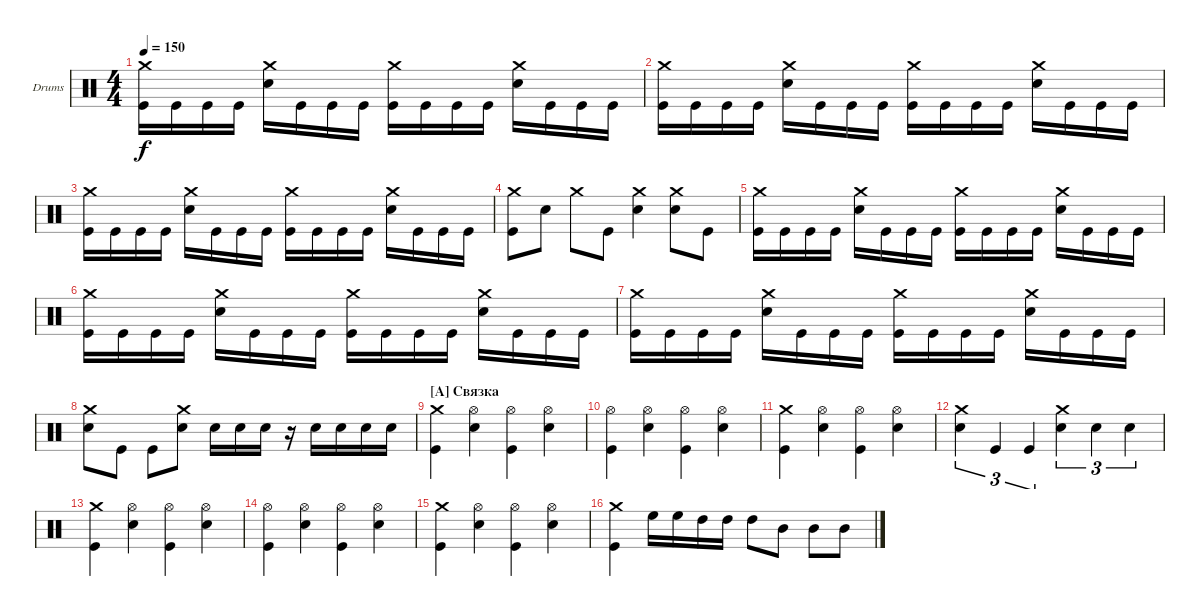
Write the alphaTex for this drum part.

\defaultSystemsLayout 4
\bracketExtendMode groupsimilarinstruments
\firstSystemTrackNameOrientation horizontal
\otherSystemsTrackNameOrientation horizontal
\track ("Drumkit" "Drums") {instrument percussion}
\staff {score}
\articulation defaults
\ts (4 4)
\tempo 150
\clef neutral
\ks c
("Kick (hit)" "Crash medium (hit)").16{dy f} "Kick (hit)".16 "Kick (hit)".16 "Kick (hit)".16 ("Snare (hit) 2" "Crash medium (hit)").16 "Kick (hit)".16 "Kick (hit)".16 "Kick (hit)".16 ("Kick (hit)" "Crash medium (hit)").16 "Kick (hit)".16 "Kick (hit)".16 "Kick (hit)".16 ("Snare (hit) 2" "Crash medium (hit)").16 "Kick (hit)".16 "Kick (hit)".16 "Kick (hit)".16 |
("Kick (hit)" "Crash medium (hit)").16 "Kick (hit)".16 "Kick (hit)".16 "Kick (hit)".16 ("Snare (hit) 2" "Crash medium (hit)").16 "Kick (hit)".16 "Kick (hit)".16 "Kick (hit)".16 ("Kick (hit)" "Crash medium (hit)").16 "Kick (hit)".16 "Kick (hit)".16 "Kick (hit)".16 ("Snare (hit) 2" "Crash medium (hit)").16 "Kick (hit)".16 "Kick (hit)".16 "Kick (hit)".16 |
("Kick (hit)" "Crash medium (hit)").16 "Kick (hit)".16 "Kick (hit)".16 "Kick (hit)".16 ("Snare (hit) 2" "Crash medium (hit)").16 "Kick (hit)".16 "Kick (hit)".16 "Kick (hit)".16 ("Kick (hit)" "Crash medium (hit)").16 "Kick (hit)".16 "Kick (hit)".16 "Kick (hit)".16 ("Snare (hit) 2" "Crash medium (hit)").16 "Kick (hit)".16 "Kick (hit)".16 "Kick (hit)".16 |
("Crash medium (hit)" "Kick (hit)").8 "Snare (hit) 2".8 "Crash medium (hit)".8 "Kick (hit)".8 ("Snare (hit) 2" "Crash medium (hit)").4 ("Snare (hit) 2" "Crash medium (hit)").8 "Kick (hit)".8 |
("Kick (hit)" "Crash medium (hit)").16 "Kick (hit)".16 "Kick (hit)".16 "Kick (hit)".16 ("Snare (hit) 2" "Crash medium (hit)").16 "Kick (hit)".16 "Kick (hit)".16 "Kick (hit)".16 ("Kick (hit)" "Crash medium (hit)").16 "Kick (hit)".16 "Kick (hit)".16 "Kick (hit)".16 ("Snare (hit) 2" "Crash medium (hit)").16 "Kick (hit)".16 "Kick (hit)".16 "Kick (hit)".16 |
("Kick (hit)" "Crash medium (hit)").16 "Kick (hit)".16 "Kick (hit)".16 "Kick (hit)".16 ("Snare (hit) 2" "Crash medium (hit)").16 "Kick (hit)".16 "Kick (hit)".16 "Kick (hit)".16 ("Kick (hit)" "Crash medium (hit)").16 "Kick (hit)".16 "Kick (hit)".16 "Kick (hit)".16 ("Snare (hit) 2" "Crash medium (hit)").16 "Kick (hit)".16 "Kick (hit)".16 "Kick (hit)".16 |
("Kick (hit)" "Crash medium (hit)").16 "Kick (hit)".16 "Kick (hit)".16 "Kick (hit)".16 ("Snare (hit) 2" "Crash medium (hit)").16 "Kick (hit)".16 "Kick (hit)".16 "Kick (hit)".16 ("Kick (hit)" "Crash medium (hit)").16 "Kick (hit)".16 "Kick (hit)".16 "Kick (hit)".16 ("Snare (hit) 2" "Crash medium (hit)").16 "Kick (hit)".16 "Kick (hit)".16 "Kick (hit)".16 |
("Crash medium (hit)" "Snare (hit) 2").8 "Kick (hit)".8 "Kick (hit)".8 ("Snare (hit) 2" "Crash medium (hit)").8 "Snare (hit) 2".16 "Snare (hit) 2".16 "Snare (hit) 2".16 r.16 "Snare (hit) 2".16 "Snare (hit) 2".16 "Snare (hit) 2".16 "Snare (hit) 2".16 |
\section ("A" "Связка")
("Kick (hit)" "Crash medium (hit)").4 ("Hi-Hat (open)" "Snare (hit) 2").4 ("Hi-Hat (open)" "Kick (hit)").4 ("Hi-Hat (open)" "Snare (hit) 2").4 |
("Hi-Hat (open)" "Kick (hit)").4 ("Snare (hit) 2" "Hi-Hat (open)").4 ("Kick (hit)" "Hi-Hat (open)").4 ("Snare (hit) 2" "Hi-Hat (open)").4 |
("Kick (hit)" "Crash medium (hit)").4 ("Hi-Hat (open)" "Snare (hit) 2").4 ("Hi-Hat (open)" "Kick (hit)").4 ("Hi-Hat (open)" "Snare (hit) 2").4 |
("Crash medium (hit)" "Snare (hit) 2").4{tu (3 2)} "Kick (hit)".4{tu (3 2)} "Kick (hit)".4{tu (3 2)} ("Crash medium (hit)" "Snare (hit) 2").4{tu (3 2)} "Snare (hit) 2".4{tu (3 2)} "Snare (hit) 2".4{tu (3 2)} |
("Kick (hit)" "Crash medium (hit)").4 ("Hi-Hat (open)" "Snare (hit) 2").4 ("Hi-Hat (open)" "Kick (hit)").4 ("Hi-Hat (open)" "Snare (hit) 2").4 |
("Hi-Hat (open)" "Kick (hit)").4 ("Snare (hit) 2" "Hi-Hat (open)").4 ("Kick (hit)" "Hi-Hat (open)").4 ("Snare (hit) 2" "Hi-Hat (open)").4 |
("Kick (hit)" "Crash medium (hit)").4 ("Hi-Hat (open)" "Snare (hit) 2").4 ("Hi-Hat (open)" "Kick (hit)").4 ("Hi-Hat (open)" "Snare (hit) 2").4 |
("Crash medium (hit)" "Kick (hit)").4 "High Floor Tom (hit)".16 "High Floor Tom (hit)".16 "High Tom (hit)".16 "High Tom (hit)".16 "High Tom (hit)".8 "Mid Tom (hit)".8 "Mid Tom (hit)".8 "Mid Tom (hit)".8
